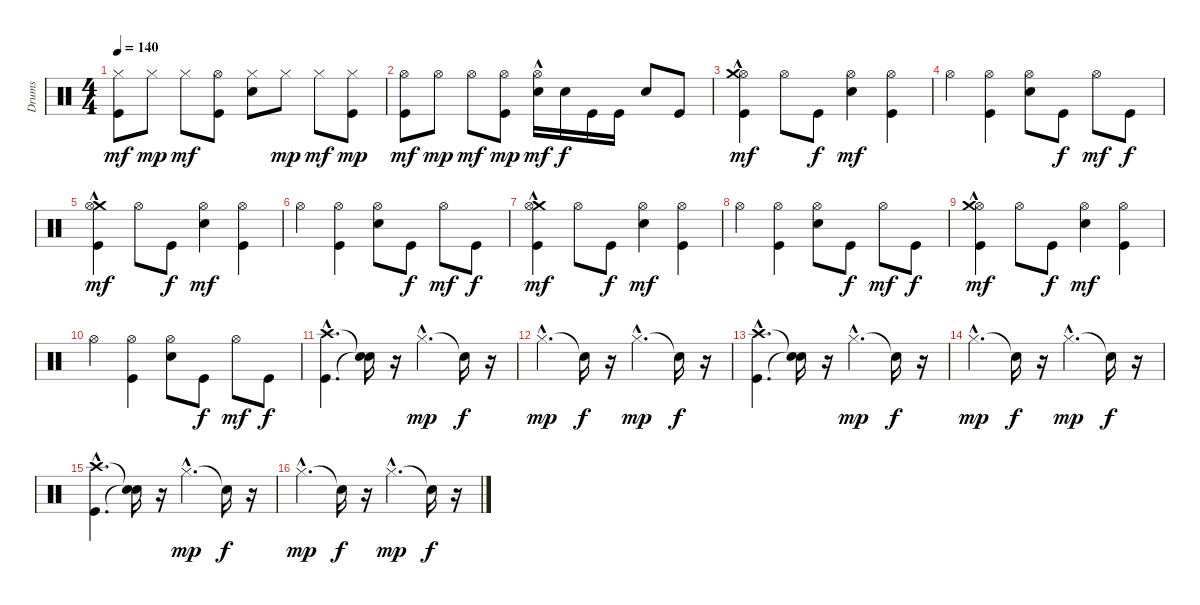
\track ("Drums" "Drums") {instrument percussion}
\staff {score}
\articulation defaults
\ts (4 4)
\tempo 140
\clef neutral
\ks c
("Kick (hit)" "Hi-Hat (closed)").8{dy mf} "Hi-Hat (closed)".8{dy mp} "Hi-Hat (closed)".8{dy mf} ("Kick (hit)" "Hi-Hat (open)").8 ("Electric Snare (hit)" "Hi-Hat (closed)").8 "Hi-Hat (closed)".8{dy mp} "Hi-Hat (closed)".8{dy mf} ("Kick (hit)" "Hi-Hat (closed)").8{dy mp} |
("Kick (hit)" "Hi-Hat (open)").8{dy mf} "Hi-Hat (open)".8{dy mp} "Hi-Hat (open)".8{dy mf} ("Kick (hit)" "Hi-Hat (open)").8{dy mp} ("Electric Snare (hit)" "Hi-Hat (open)"{hac}).16{dy mf} "Electric Snare (hit)".16{dy f} "Kick (hit)".16 "Kick (hit)".16 "Electric Snare (hit)".8 "Kick (hit)".8 |
("Kick (hit)" "Hi-Hat (open)" "Crash medium (hit)"{hac}).4{dy mf} "Hi-Hat (open)".8 "Kick (hit)".8{dy f} ("Electric Snare (hit)" "Hi-Hat (open)").4{dy mf} ("Kick (hit)" "Hi-Hat (open)").4 |
"Hi-Hat (open)".4 ("Kick (hit)" "Hi-Hat (open)").4 ("Electric Snare (hit)" "Hi-Hat (open)").8 "Kick (hit)".8{dy f} "Hi-Hat (open)".8{dy mf} "Kick (hit)".8{dy f} |
("Crash medium (hit)"{hac} "Hi-Hat (open)" "Kick (hit)").4{dy mf} "Hi-Hat (open)".8 "Kick (hit)".8{dy f} ("Hi-Hat (open)" "Electric Snare (hit)").4{dy mf} ("Hi-Hat (open)" "Kick (hit)").4 |
"Hi-Hat (open)".4 ("Hi-Hat (open)" "Kick (hit)").4 ("Hi-Hat (open)" "Electric Snare (hit)").8 "Kick (hit)".8{dy f} "Hi-Hat (open)".8{dy mf} "Kick (hit)".8{dy f} |
("Crash medium (hit)"{hac} "Hi-Hat (open)" "Kick (hit)").4{dy mf} "Hi-Hat (open)".8 "Kick (hit)".8{dy f} ("Hi-Hat (open)" "Electric Snare (hit)").4{dy mf} ("Hi-Hat (open)" "Kick (hit)").4 |
"Hi-Hat (open)".4 ("Hi-Hat (open)" "Kick (hit)").4 ("Hi-Hat (open)" "Electric Snare (hit)").8 "Kick (hit)".8{dy f} "Hi-Hat (open)".8{dy mf} "Kick (hit)".8{dy f} |
("Kick (hit)" "Hi-Hat (open)" "Crash medium (hit)"{hac}).4{dy mf} "Hi-Hat (open)".8 "Kick (hit)".8{dy f} ("Electric Snare (hit)" "Hi-Hat (open)").4{dy mf} ("Kick (hit)" "Hi-Hat (open)").4 |
"Hi-Hat (open)".4 ("Kick (hit)" "Hi-Hat (open)").4 ("Electric Snare (hit)" "Hi-Hat (open)").8 "Kick (hit)".8{dy f} "Hi-Hat (open)".8{dy mf} "Kick (hit)".8{dy f} |
("Kick (hit)"{hac} "Crash high (hit)"{hac}).4{d} ("Snare (hit)"{t} "Snare (hit)"{t}).16 r.16 "Hi-Hat (closed)"{hac}.4{d dy mp} "Snare (hit)"{t}.16{dy f} r.16 |
"Hi-Hat (closed)"{hac}.4{d dy mp} "Snare (hit)"{t}.16{dy f} r.16 "Hi-Hat (closed)"{hac}.4{d dy mp} "Snare (hit)"{t}.16{dy f} r.16 |
("Crash high (hit)"{hac} "Kick (hit)"{hac}).4{d} ("Snare (hit)"{t} "Snare (hit)"{t}).16 r.16 "Hi-Hat (closed)"{hac}.4{d dy mp} "Snare (hit)"{t}.16{dy f} r.16 |
"Hi-Hat (closed)"{hac}.4{d dy mp} "Snare (hit)"{t}.16{dy f} r.16 "Hi-Hat (closed)"{hac}.4{d dy mp} "Snare (hit)"{t}.16{dy f} r.16 |
("Crash high (hit)"{hac} "Kick (hit)"{hac}).4{d} ("Snare (hit)"{t} "Snare (hit)"{t}).16 r.16 "Hi-Hat (closed)"{hac}.4{d dy mp} "Snare (hit)"{t}.16{dy f} r.16 |
"Hi-Hat (closed)"{hac}.4{d dy mp} "Snare (hit)"{t}.16{dy f} r.16 "Hi-Hat (closed)"{hac}.4{d dy mp} "Snare (hit)"{t}.16{dy f} r.16
